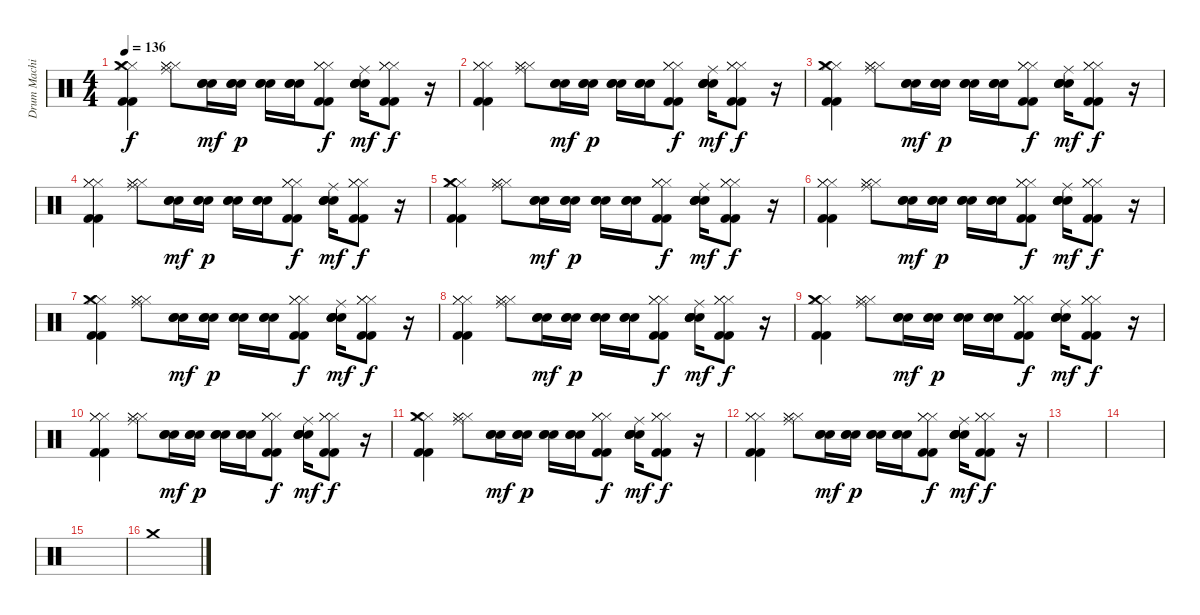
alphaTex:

\track ("Drum Machine" "Drum Machi") {instrument percussion}
\staff {score}
\articulation defaults
\ts (4 4)
\tempo 136
\clef neutral
\ks c
("Hi-Hat (closed)" "Kick (hit) 2" "Crash medium (hit)" "Kick (hit) 2" "Hi-Hat (closed)").4{dy f} ("Ride (middle)" "Hi-Hat (closed)" "Hi-Hat (closed)" "Hi-Hat (closed)").8 ("Electric Snare (hit)" "Electric Snare (hit)" "Electric Snare (hit)").16{dy mf} ("Snare (hit) 2" "Snare (hit) 2" "Snare (hit) 2").16{dy p} ("Electric Snare (hit)" "Electric Snare (hit)" "Electric Snare (hit)").16 ("Snare (hit) 2" "Snare (hit) 2" "Snare (hit) 2").16 ("Hi-Hat (closed)" "Kick (hit) 2" "Hi-Hat (closed)" "Kick (hit) 2" "Hi-Hat (closed)").8{dy f} ("Ride (middle)" "Electric Snare (hit)" "Snare (hit) 2" "Electric Snare (hit)" "Snare (hit) 2").16{dy mf} ("Hi-Hat (closed)" "Kick (hit) 2" "Hi-Hat (closed)" "Kick (hit) 2" "Hi-Hat (closed)").8{dy f} r.16 |
("Hi-Hat (closed)" "Kick (hit) 2" "Hi-Hat (closed)" "Kick (hit) 2" "Hi-Hat (closed)").4 ("Ride (middle)" "Hi-Hat (closed)" "Hi-Hat (closed)" "Hi-Hat (closed)").8 ("Electric Snare (hit)" "Electric Snare (hit)" "Electric Snare (hit)").16{dy mf} ("Snare (hit) 2" "Snare (hit) 2" "Snare (hit) 2").16{dy p} ("Electric Snare (hit)" "Electric Snare (hit)" "Electric Snare (hit)").16 ("Snare (hit) 2" "Snare (hit) 2" "Snare (hit) 2").16 ("Hi-Hat (closed)" "Kick (hit) 2" "Hi-Hat (closed)" "Kick (hit) 2" "Hi-Hat (closed)").8{dy f} ("Ride (middle)" "Electric Snare (hit)" "Snare (hit) 2" "Electric Snare (hit)" "Snare (hit) 2").16{dy mf} ("Hi-Hat (closed)" "Kick (hit) 2" "Hi-Hat (closed)" "Kick (hit) 2" "Hi-Hat (closed)").8{dy f} r.16 |
("Hi-Hat (closed)" "Kick (hit) 2" "Crash medium (hit)" "Kick (hit) 2" "Hi-Hat (closed)").4 ("Ride (middle)" "Hi-Hat (closed)" "Hi-Hat (closed)" "Hi-Hat (closed)").8 ("Electric Snare (hit)" "Electric Snare (hit)" "Electric Snare (hit)").16{dy mf} ("Snare (hit) 2" "Snare (hit) 2" "Snare (hit) 2").16{dy p} ("Electric Snare (hit)" "Electric Snare (hit)" "Electric Snare (hit)").16 ("Snare (hit) 2" "Snare (hit) 2" "Snare (hit) 2").16 ("Hi-Hat (closed)" "Kick (hit) 2" "Hi-Hat (closed)" "Kick (hit) 2" "Hi-Hat (closed)").8{dy f} ("Ride (middle)" "Electric Snare (hit)" "Snare (hit) 2" "Electric Snare (hit)" "Snare (hit) 2").16{dy mf} ("Hi-Hat (closed)" "Kick (hit) 2" "Hi-Hat (closed)" "Kick (hit) 2" "Hi-Hat (closed)").8{dy f} r.16 |
("Hi-Hat (closed)" "Kick (hit) 2" "Hi-Hat (closed)" "Kick (hit) 2" "Hi-Hat (closed)").4 ("Ride (middle)" "Hi-Hat (closed)" "Hi-Hat (closed)" "Hi-Hat (closed)").8 ("Electric Snare (hit)" "Electric Snare (hit)" "Electric Snare (hit)").16{dy mf} ("Snare (hit) 2" "Snare (hit) 2" "Snare (hit) 2").16{dy p} ("Electric Snare (hit)" "Electric Snare (hit)" "Electric Snare (hit)").16 ("Snare (hit) 2" "Snare (hit) 2" "Snare (hit) 2").16 ("Hi-Hat (closed)" "Kick (hit) 2" "Hi-Hat (closed)" "Kick (hit) 2" "Hi-Hat (closed)").8{dy f} ("Ride (middle)" "Electric Snare (hit)" "Snare (hit) 2" "Electric Snare (hit)" "Snare (hit) 2").16{dy mf} ("Hi-Hat (closed)" "Kick (hit) 2" "Hi-Hat (closed)" "Kick (hit) 2" "Hi-Hat (closed)").8{dy f} r.16 |
("Hi-Hat (closed)" "Kick (hit) 2" "Crash medium (hit)" "Kick (hit) 2" "Hi-Hat (closed)").4 ("Ride (middle)" "Hi-Hat (closed)" "Hi-Hat (closed)" "Hi-Hat (closed)").8 ("Electric Snare (hit)" "Electric Snare (hit)" "Electric Snare (hit)").16{dy mf} ("Snare (hit) 2" "Snare (hit) 2" "Snare (hit) 2").16{dy p} ("Electric Snare (hit)" "Electric Snare (hit)" "Electric Snare (hit)").16 ("Snare (hit) 2" "Snare (hit) 2" "Snare (hit) 2").16 ("Hi-Hat (closed)" "Kick (hit) 2" "Hi-Hat (closed)" "Kick (hit) 2" "Hi-Hat (closed)").8{dy f} ("Ride (middle)" "Electric Snare (hit)" "Snare (hit) 2" "Electric Snare (hit)" "Snare (hit) 2").16{dy mf} ("Hi-Hat (closed)" "Kick (hit) 2" "Hi-Hat (closed)" "Kick (hit) 2" "Hi-Hat (closed)").8{dy f} r.16 |
("Hi-Hat (closed)" "Kick (hit) 2" "Hi-Hat (closed)" "Kick (hit) 2" "Hi-Hat (closed)").4 ("Ride (middle)" "Hi-Hat (closed)" "Hi-Hat (closed)" "Hi-Hat (closed)").8 ("Electric Snare (hit)" "Electric Snare (hit)" "Electric Snare (hit)").16{dy mf} ("Snare (hit) 2" "Snare (hit) 2" "Snare (hit) 2").16{dy p} ("Electric Snare (hit)" "Electric Snare (hit)" "Electric Snare (hit)").16 ("Snare (hit) 2" "Snare (hit) 2" "Snare (hit) 2").16 ("Hi-Hat (closed)" "Kick (hit) 2" "Hi-Hat (closed)" "Kick (hit) 2" "Hi-Hat (closed)").8{dy f} ("Ride (middle)" "Electric Snare (hit)" "Snare (hit) 2" "Electric Snare (hit)" "Snare (hit) 2").16{dy mf} ("Hi-Hat (closed)" "Kick (hit) 2" "Hi-Hat (closed)" "Kick (hit) 2" "Hi-Hat (closed)").8{dy f} r.16 |
("Hi-Hat (closed)" "Kick (hit) 2" "Crash medium (hit)" "Kick (hit) 2" "Hi-Hat (closed)").4 ("Ride (middle)" "Hi-Hat (closed)" "Hi-Hat (closed)" "Hi-Hat (closed)").8 ("Electric Snare (hit)" "Electric Snare (hit)" "Electric Snare (hit)").16{dy mf} ("Snare (hit) 2" "Snare (hit) 2" "Snare (hit) 2").16{dy p} ("Electric Snare (hit)" "Electric Snare (hit)" "Electric Snare (hit)").16 ("Snare (hit) 2" "Snare (hit) 2" "Snare (hit) 2").16 ("Hi-Hat (closed)" "Kick (hit) 2" "Hi-Hat (closed)" "Kick (hit) 2" "Hi-Hat (closed)").8{dy f} ("Ride (middle)" "Electric Snare (hit)" "Snare (hit) 2" "Electric Snare (hit)" "Snare (hit) 2").16{dy mf} ("Hi-Hat (closed)" "Kick (hit) 2" "Hi-Hat (closed)" "Kick (hit) 2" "Hi-Hat (closed)").8{dy f} r.16 |
("Hi-Hat (closed)" "Kick (hit) 2" "Hi-Hat (closed)" "Kick (hit) 2" "Hi-Hat (closed)").4 ("Ride (middle)" "Hi-Hat (closed)" "Hi-Hat (closed)" "Hi-Hat (closed)").8 ("Electric Snare (hit)" "Electric Snare (hit)" "Electric Snare (hit)").16{dy mf} ("Snare (hit) 2" "Snare (hit) 2" "Snare (hit) 2").16{dy p} ("Electric Snare (hit)" "Electric Snare (hit)" "Electric Snare (hit)").16 ("Snare (hit) 2" "Snare (hit) 2" "Snare (hit) 2").16 ("Hi-Hat (closed)" "Kick (hit) 2" "Hi-Hat (closed)" "Kick (hit) 2" "Hi-Hat (closed)").8{dy f} ("Ride (middle)" "Electric Snare (hit)" "Snare (hit) 2" "Electric Snare (hit)" "Snare (hit) 2").16{dy mf} ("Hi-Hat (closed)" "Kick (hit) 2" "Hi-Hat (closed)" "Kick (hit) 2" "Hi-Hat (closed)").8{dy f} r.16 |
("Hi-Hat (closed)" "Kick (hit) 2" "Crash medium (hit)" "Kick (hit) 2" "Hi-Hat (closed)").4 ("Ride (middle)" "Hi-Hat (closed)" "Hi-Hat (closed)" "Hi-Hat (closed)").8 ("Electric Snare (hit)" "Electric Snare (hit)" "Electric Snare (hit)").16{dy mf} ("Snare (hit) 2" "Snare (hit) 2" "Snare (hit) 2").16{dy p} ("Electric Snare (hit)" "Electric Snare (hit)" "Electric Snare (hit)").16 ("Snare (hit) 2" "Snare (hit) 2" "Snare (hit) 2").16 ("Hi-Hat (closed)" "Kick (hit) 2" "Hi-Hat (closed)" "Kick (hit) 2" "Hi-Hat (closed)").8{dy f} ("Ride (middle)" "Electric Snare (hit)" "Snare (hit) 2" "Electric Snare (hit)" "Snare (hit) 2").16{dy mf} ("Hi-Hat (closed)" "Kick (hit) 2" "Hi-Hat (closed)" "Kick (hit) 2" "Hi-Hat (closed)").8{dy f} r.16 |
("Hi-Hat (closed)" "Kick (hit) 2" "Hi-Hat (closed)" "Kick (hit) 2" "Hi-Hat (closed)").4 ("Ride (middle)" "Hi-Hat (closed)" "Hi-Hat (closed)" "Hi-Hat (closed)").8 ("Electric Snare (hit)" "Electric Snare (hit)" "Electric Snare (hit)").16{dy mf} ("Snare (hit) 2" "Snare (hit) 2" "Snare (hit) 2").16{dy p} ("Electric Snare (hit)" "Electric Snare (hit)" "Electric Snare (hit)").16 ("Snare (hit) 2" "Snare (hit) 2" "Snare (hit) 2").16 ("Hi-Hat (closed)" "Kick (hit) 2" "Hi-Hat (closed)" "Kick (hit) 2" "Hi-Hat (closed)").8{dy f} ("Ride (middle)" "Electric Snare (hit)" "Snare (hit) 2" "Electric Snare (hit)" "Snare (hit) 2").16{dy mf} ("Hi-Hat (closed)" "Kick (hit) 2" "Hi-Hat (closed)" "Kick (hit) 2" "Hi-Hat (closed)").8{dy f} r.16 |
("Hi-Hat (closed)" "Kick (hit) 2" "Crash medium (hit)" "Kick (hit) 2" "Hi-Hat (closed)").4 ("Ride (middle)" "Hi-Hat (closed)" "Hi-Hat (closed)" "Hi-Hat (closed)").8 ("Electric Snare (hit)" "Electric Snare (hit)" "Electric Snare (hit)").16{dy mf} ("Snare (hit) 2" "Snare (hit) 2" "Snare (hit) 2").16{dy p} ("Electric Snare (hit)" "Electric Snare (hit)" "Electric Snare (hit)").16 ("Snare (hit) 2" "Snare (hit) 2" "Snare (hit) 2").16 ("Hi-Hat (closed)" "Kick (hit) 2" "Hi-Hat (closed)" "Kick (hit) 2" "Hi-Hat (closed)").8{dy f} ("Ride (middle)" "Electric Snare (hit)" "Snare (hit) 2" "Electric Snare (hit)" "Snare (hit) 2").16{dy mf} ("Hi-Hat (closed)" "Kick (hit) 2" "Hi-Hat (closed)" "Kick (hit) 2" "Hi-Hat (closed)").8{dy f} r.16 |
("Hi-Hat (closed)" "Kick (hit) 2" "Hi-Hat (closed)" "Kick (hit) 2" "Hi-Hat (closed)").4 ("Ride (middle)" "Hi-Hat (closed)" "Hi-Hat (closed)" "Hi-Hat (closed)").8 ("Electric Snare (hit)" "Electric Snare (hit)" "Electric Snare (hit)").16{dy mf} ("Snare (hit) 2" "Snare (hit) 2" "Snare (hit) 2").16{dy p} ("Electric Snare (hit)" "Electric Snare (hit)" "Electric Snare (hit)").16 ("Snare (hit) 2" "Snare (hit) 2" "Snare (hit) 2").16 ("Hi-Hat (closed)" "Kick (hit) 2" "Hi-Hat (closed)" "Kick (hit) 2" "Hi-Hat (closed)").8{dy f} ("Ride (middle)" "Electric Snare (hit)" "Snare (hit) 2" "Electric Snare (hit)" "Snare (hit) 2").16{dy mf} ("Hi-Hat (closed)" "Kick (hit) 2" "Hi-Hat (closed)" "Kick (hit) 2" "Hi-Hat (closed)").8{dy f} r.16 |
|
|
|
"Crash medium (hit)".1
